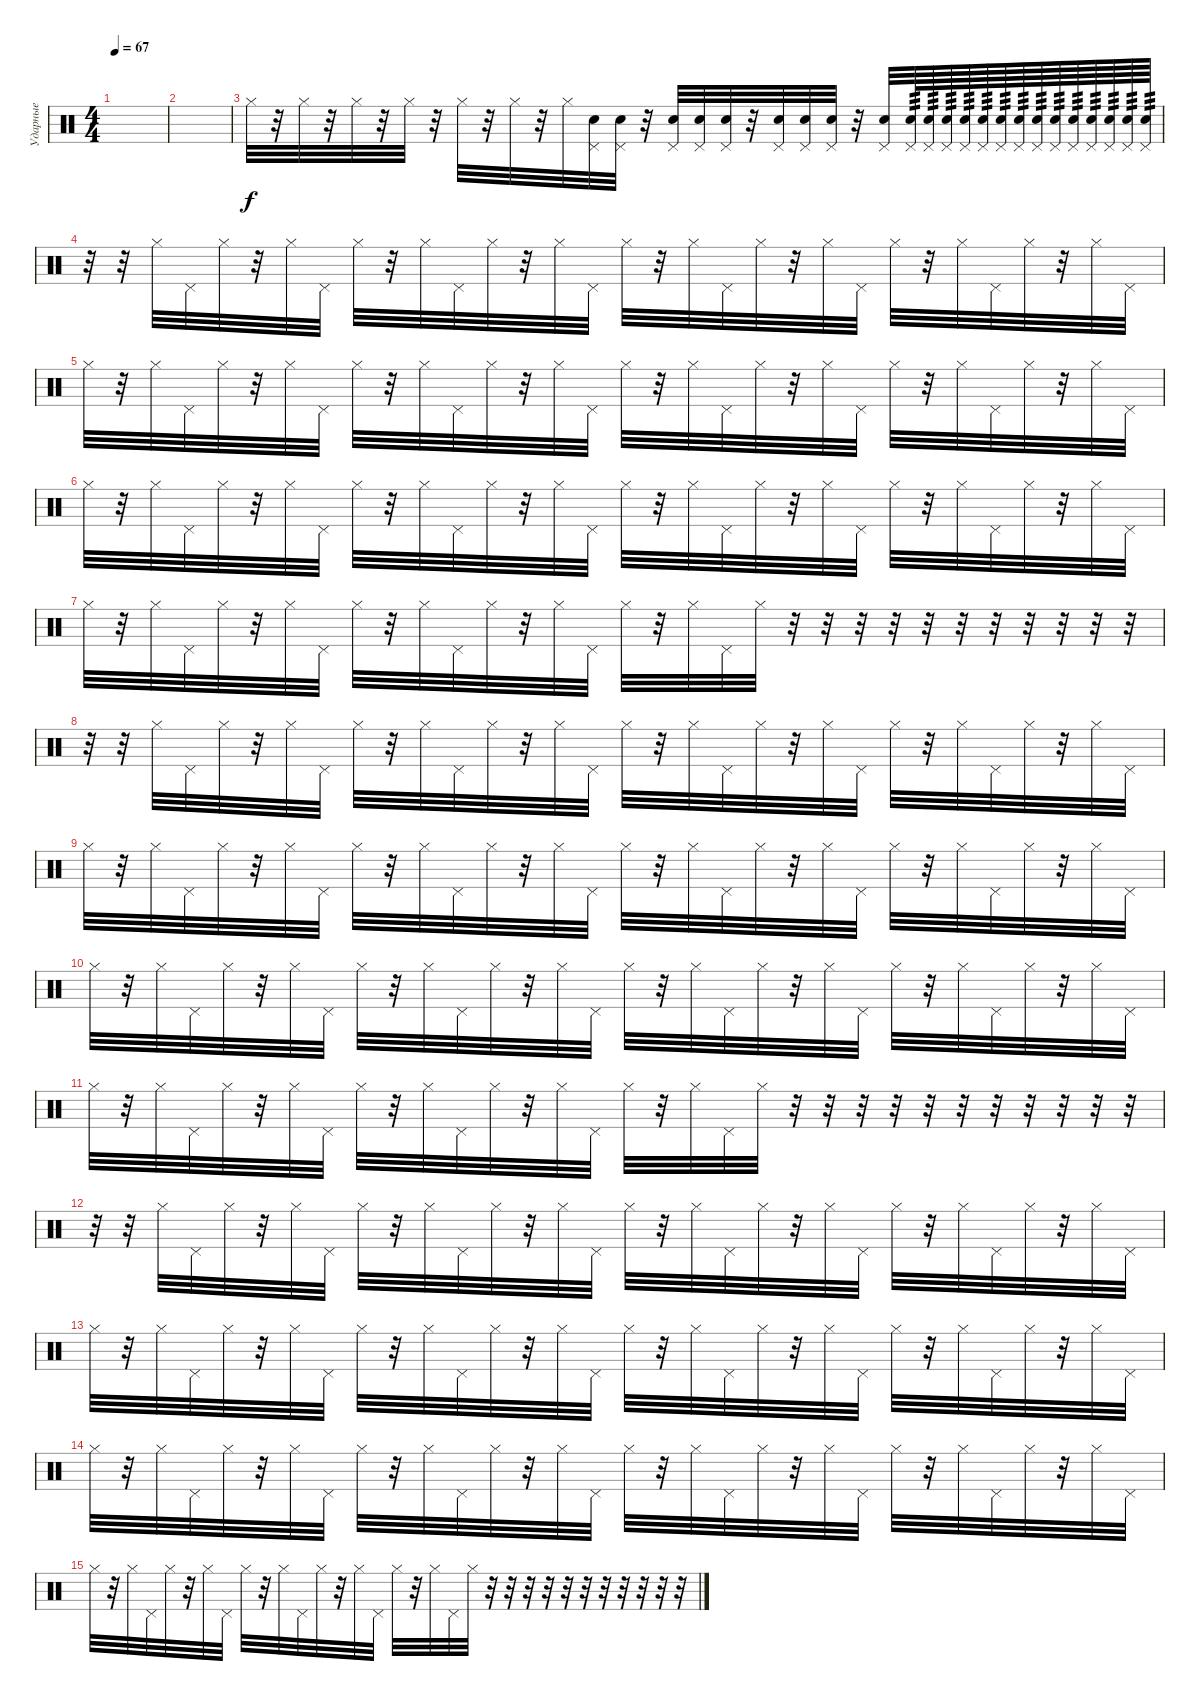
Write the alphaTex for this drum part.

\track ("Ударные" "Ударные") {instrument percussion}
\staff {score}
\articulation defaults
\ts (4 4)
\tempo 67
\clef neutral
\ks c
|
|
"Hi-Hat (closed)".32{volume 2} r.32 "Hi-Hat (closed)".32{volume 5} r.32 "Hi-Hat (closed)".32{volume 10} r.32 "Hi-Hat (closed)".32{volume 16} r.32 "Hi-Hat (closed)".32 r.32 "Hi-Hat (closed)".32 r.32 "Hi-Hat (closed)".32 ("Pedal Hi-Hat (hit)" "Electric Snare (hit)").32 ("Pedal Hi-Hat (hit)" "Electric Snare (hit)").32 r.32 ("Pedal Hi-Hat (hit)" "Electric Snare (hit)").32 ("Pedal Hi-Hat (hit)" "Electric Snare (hit)").32 ("Pedal Hi-Hat (hit)" "Electric Snare (hit)").32 r.32 ("Pedal Hi-Hat (hit)" "Electric Snare (hit)").32 ("Pedal Hi-Hat (hit)" "Electric Snare (hit)").32 ("Pedal Hi-Hat (hit)" "Electric Snare (hit)").32 r.32 ("Pedal Hi-Hat (hit)" "Electric Snare (hit)").32 ("Pedal Hi-Hat (hit)" "Electric Snare (hit)").64{tp 3} ("Pedal Hi-Hat (hit)" "Electric Snare (hit)").64{tp 3} ("Pedal Hi-Hat (hit)" "Electric Snare (hit)").64{tp 3} ("Pedal Hi-Hat (hit)" "Electric Snare (hit)").64{tp 3} ("Pedal Hi-Hat (hit)" "Electric Snare (hit)").64{tp 3} ("Pedal Hi-Hat (hit)" "Electric Snare (hit)").64{tp 3} ("Pedal Hi-Hat (hit)" "Electric Snare (hit)").64{tp 3} ("Pedal Hi-Hat (hit)" "Electric Snare (hit)").64{tp 3} ("Pedal Hi-Hat (hit)" "Electric Snare (hit)").64{tp 3} ("Pedal Hi-Hat (hit)" "Electric Snare (hit)").64{tp 3} ("Pedal Hi-Hat (hit)" "Electric Snare (hit)").64{tp 3} ("Pedal Hi-Hat (hit)" "Electric Snare (hit)").64{tp 3} ("Pedal Hi-Hat (hit)" "Electric Snare (hit)").64{tp 3} ("Pedal Hi-Hat (hit)" "Electric Snare (hit)").64{tp 3} |
r.32 r.32 "Hi-Hat (closed)".32 "Pedal Hi-Hat (hit)".32 "Hi-Hat (closed)".32 r.32 "Hi-Hat (closed)".32 "Pedal Hi-Hat (hit)".32 "Hi-Hat (closed)".32 r.32 "Hi-Hat (closed)".32 "Pedal Hi-Hat (hit)".32 "Hi-Hat (closed)".32 r.32 "Hi-Hat (closed)".32 "Pedal Hi-Hat (hit)".32 "Hi-Hat (closed)".32 r.32 "Hi-Hat (closed)".32 "Pedal Hi-Hat (hit)".32 "Hi-Hat (closed)".32 r.32 "Hi-Hat (closed)".32 "Pedal Hi-Hat (hit)".32 "Hi-Hat (closed)".32 r.32 "Hi-Hat (closed)".32 "Pedal Hi-Hat (hit)".32 "Hi-Hat (closed)".32 r.32 "Hi-Hat (closed)".32 "Pedal Hi-Hat (hit)".32 |
"Hi-Hat (closed)".32 r.32 "Hi-Hat (closed)".32 "Pedal Hi-Hat (hit)".32 "Hi-Hat (closed)".32 r.32 "Hi-Hat (closed)".32 "Pedal Hi-Hat (hit)".32 "Hi-Hat (closed)".32 r.32 "Hi-Hat (closed)".32 "Pedal Hi-Hat (hit)".32 "Hi-Hat (closed)".32 r.32 "Hi-Hat (closed)".32 "Pedal Hi-Hat (hit)".32 "Hi-Hat (closed)".32 r.32 "Hi-Hat (closed)".32 "Pedal Hi-Hat (hit)".32 "Hi-Hat (closed)".32 r.32 "Hi-Hat (closed)".32 "Pedal Hi-Hat (hit)".32 "Hi-Hat (closed)".32 r.32 "Hi-Hat (closed)".32 "Pedal Hi-Hat (hit)".32 "Hi-Hat (closed)".32 r.32 "Hi-Hat (closed)".32 "Pedal Hi-Hat (hit)".32 |
"Hi-Hat (closed)".32 r.32 "Hi-Hat (closed)".32 "Pedal Hi-Hat (hit)".32 "Hi-Hat (closed)".32 r.32 "Hi-Hat (closed)".32 "Pedal Hi-Hat (hit)".32 "Hi-Hat (closed)".32 r.32 "Hi-Hat (closed)".32 "Pedal Hi-Hat (hit)".32 "Hi-Hat (closed)".32 r.32 "Hi-Hat (closed)".32 "Pedal Hi-Hat (hit)".32 "Hi-Hat (closed)".32 r.32 "Hi-Hat (closed)".32 "Pedal Hi-Hat (hit)".32 "Hi-Hat (closed)".32 r.32 "Hi-Hat (closed)".32 "Pedal Hi-Hat (hit)".32 "Hi-Hat (closed)".32 r.32 "Hi-Hat (closed)".32 "Pedal Hi-Hat (hit)".32 "Hi-Hat (closed)".32 r.32 "Hi-Hat (closed)".32 "Pedal Hi-Hat (hit)".32 |
"Hi-Hat (closed)".32 r.32 "Hi-Hat (closed)".32 "Pedal Hi-Hat (hit)".32 "Hi-Hat (closed)".32 r.32 "Hi-Hat (closed)".32 "Pedal Hi-Hat (hit)".32 "Hi-Hat (closed)".32 r.32 "Hi-Hat (closed)".32 "Pedal Hi-Hat (hit)".32 "Hi-Hat (closed)".32 r.32 "Hi-Hat (closed)".32 "Pedal Hi-Hat (hit)".32 "Hi-Hat (closed)".32 r.32 "Hi-Hat (closed)".32 "Pedal Hi-Hat (hit)".32 "Hi-Hat (closed)".32 r.32 r.32 r.32 r.32 r.32 r.32 r.32 r.32 r.32 r.32 r.32 |
r.32 r.32 "Hi-Hat (closed)".32 "Pedal Hi-Hat (hit)".32 "Hi-Hat (closed)".32 r.32 "Hi-Hat (closed)".32 "Pedal Hi-Hat (hit)".32 "Hi-Hat (closed)".32 r.32 "Hi-Hat (closed)".32 "Pedal Hi-Hat (hit)".32 "Hi-Hat (closed)".32 r.32 "Hi-Hat (closed)".32 "Pedal Hi-Hat (hit)".32 "Hi-Hat (closed)".32 r.32 "Hi-Hat (closed)".32 "Pedal Hi-Hat (hit)".32 "Hi-Hat (closed)".32 r.32 "Hi-Hat (closed)".32 "Pedal Hi-Hat (hit)".32 "Hi-Hat (closed)".32 r.32 "Hi-Hat (closed)".32 "Pedal Hi-Hat (hit)".32 "Hi-Hat (closed)".32 r.32 "Hi-Hat (closed)".32 "Pedal Hi-Hat (hit)".32 |
"Hi-Hat (closed)".32 r.32 "Hi-Hat (closed)".32 "Pedal Hi-Hat (hit)".32 "Hi-Hat (closed)".32 r.32 "Hi-Hat (closed)".32 "Pedal Hi-Hat (hit)".32 "Hi-Hat (closed)".32 r.32 "Hi-Hat (closed)".32 "Pedal Hi-Hat (hit)".32 "Hi-Hat (closed)".32 r.32 "Hi-Hat (closed)".32 "Pedal Hi-Hat (hit)".32 "Hi-Hat (closed)".32 r.32 "Hi-Hat (closed)".32 "Pedal Hi-Hat (hit)".32 "Hi-Hat (closed)".32 r.32 "Hi-Hat (closed)".32 "Pedal Hi-Hat (hit)".32 "Hi-Hat (closed)".32 r.32 "Hi-Hat (closed)".32 "Pedal Hi-Hat (hit)".32 "Hi-Hat (closed)".32 r.32 "Hi-Hat (closed)".32 "Pedal Hi-Hat (hit)".32 |
"Hi-Hat (closed)".32 r.32 "Hi-Hat (closed)".32 "Pedal Hi-Hat (hit)".32 "Hi-Hat (closed)".32 r.32 "Hi-Hat (closed)".32 "Pedal Hi-Hat (hit)".32 "Hi-Hat (closed)".32 r.32 "Hi-Hat (closed)".32 "Pedal Hi-Hat (hit)".32 "Hi-Hat (closed)".32 r.32 "Hi-Hat (closed)".32 "Pedal Hi-Hat (hit)".32 "Hi-Hat (closed)".32 r.32 "Hi-Hat (closed)".32 "Pedal Hi-Hat (hit)".32 "Hi-Hat (closed)".32 r.32 "Hi-Hat (closed)".32 "Pedal Hi-Hat (hit)".32 "Hi-Hat (closed)".32 r.32 "Hi-Hat (closed)".32 "Pedal Hi-Hat (hit)".32 "Hi-Hat (closed)".32 r.32 "Hi-Hat (closed)".32 "Pedal Hi-Hat (hit)".32 |
"Hi-Hat (closed)".32 r.32 "Hi-Hat (closed)".32 "Pedal Hi-Hat (hit)".32 "Hi-Hat (closed)".32 r.32 "Hi-Hat (closed)".32 "Pedal Hi-Hat (hit)".32 "Hi-Hat (closed)".32 r.32 "Hi-Hat (closed)".32 "Pedal Hi-Hat (hit)".32 "Hi-Hat (closed)".32 r.32 "Hi-Hat (closed)".32 "Pedal Hi-Hat (hit)".32 "Hi-Hat (closed)".32 r.32 "Hi-Hat (closed)".32 "Pedal Hi-Hat (hit)".32 "Hi-Hat (closed)".32 r.32 r.32 r.32 r.32 r.32 r.32 r.32 r.32 r.32 r.32 r.32 |
r.32 r.32 "Hi-Hat (closed)".32 "Pedal Hi-Hat (hit)".32 "Hi-Hat (closed)".32 r.32 "Hi-Hat (closed)".32 "Pedal Hi-Hat (hit)".32 "Hi-Hat (closed)".32 r.32 "Hi-Hat (closed)".32 "Pedal Hi-Hat (hit)".32 "Hi-Hat (closed)".32 r.32 "Hi-Hat (closed)".32 "Pedal Hi-Hat (hit)".32 "Hi-Hat (closed)".32 r.32 "Hi-Hat (closed)".32 "Pedal Hi-Hat (hit)".32 "Hi-Hat (closed)".32 r.32 "Hi-Hat (closed)".32 "Pedal Hi-Hat (hit)".32 "Hi-Hat (closed)".32 r.32 "Hi-Hat (closed)".32 "Pedal Hi-Hat (hit)".32 "Hi-Hat (closed)".32 r.32 "Hi-Hat (closed)".32 "Pedal Hi-Hat (hit)".32 |
"Hi-Hat (closed)".32 r.32 "Hi-Hat (closed)".32 "Pedal Hi-Hat (hit)".32 "Hi-Hat (closed)".32 r.32 "Hi-Hat (closed)".32 "Pedal Hi-Hat (hit)".32 "Hi-Hat (closed)".32 r.32 "Hi-Hat (closed)".32 "Pedal Hi-Hat (hit)".32 "Hi-Hat (closed)".32 r.32 "Hi-Hat (closed)".32 "Pedal Hi-Hat (hit)".32 "Hi-Hat (closed)".32 r.32 "Hi-Hat (closed)".32 "Pedal Hi-Hat (hit)".32 "Hi-Hat (closed)".32 r.32 "Hi-Hat (closed)".32 "Pedal Hi-Hat (hit)".32 "Hi-Hat (closed)".32 r.32 "Hi-Hat (closed)".32 "Pedal Hi-Hat (hit)".32 "Hi-Hat (closed)".32 r.32 "Hi-Hat (closed)".32 "Pedal Hi-Hat (hit)".32 |
"Hi-Hat (closed)".32 r.32 "Hi-Hat (closed)".32 "Pedal Hi-Hat (hit)".32 "Hi-Hat (closed)".32 r.32 "Hi-Hat (closed)".32 "Pedal Hi-Hat (hit)".32 "Hi-Hat (closed)".32 r.32 "Hi-Hat (closed)".32 "Pedal Hi-Hat (hit)".32 "Hi-Hat (closed)".32 r.32 "Hi-Hat (closed)".32 "Pedal Hi-Hat (hit)".32 "Hi-Hat (closed)".32 r.32 "Hi-Hat (closed)".32 "Pedal Hi-Hat (hit)".32 "Hi-Hat (closed)".32 r.32 "Hi-Hat (closed)".32 "Pedal Hi-Hat (hit)".32 "Hi-Hat (closed)".32 r.32 "Hi-Hat (closed)".32 "Pedal Hi-Hat (hit)".32 "Hi-Hat (closed)".32 r.32 "Hi-Hat (closed)".32 "Pedal Hi-Hat (hit)".32 |
"Hi-Hat (closed)".32 r.32 "Hi-Hat (closed)".32 "Pedal Hi-Hat (hit)".32 "Hi-Hat (closed)".32 r.32 "Hi-Hat (closed)".32 "Pedal Hi-Hat (hit)".32 "Hi-Hat (closed)".32 r.32 "Hi-Hat (closed)".32 "Pedal Hi-Hat (hit)".32 "Hi-Hat (closed)".32 r.32 "Hi-Hat (closed)".32 "Pedal Hi-Hat (hit)".32 "Hi-Hat (closed)".32 r.32 "Hi-Hat (closed)".32 "Pedal Hi-Hat (hit)".32 "Hi-Hat (closed)".32 r.32 r.32 r.32 r.32 r.32 r.32 r.32 r.32 r.32 r.32 r.32
